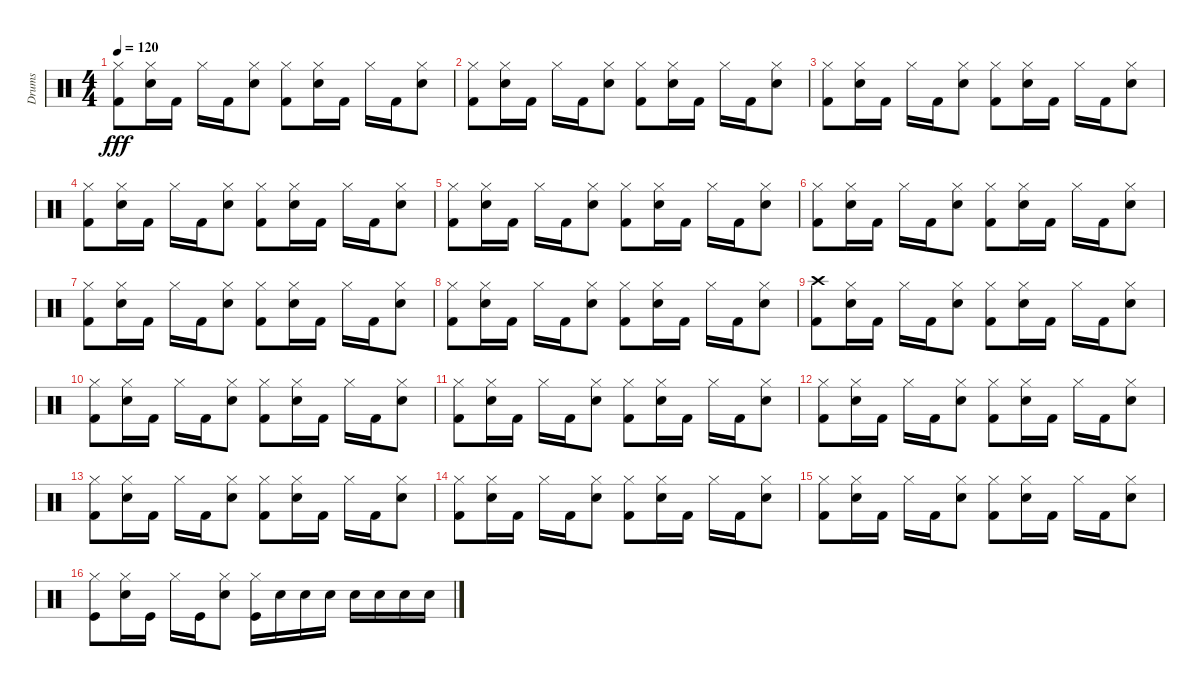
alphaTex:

\track ("Drums" "Drums") {instrument percussion}
\staff {score}
\articulation defaults
\ts (4 4)
\tempo 120
\clef neutral
\ks c
("Hi-Hat (closed)" "Kick (hit) 2").8{dy fff} ("Hi-Hat (closed)" "Snare (hit) 2").16 "Kick (hit) 2".16 "Hi-Hat (closed)".16 "Kick (hit) 2".16 ("Hi-Hat (closed)" "Snare (hit) 2").8 ("Hi-Hat (closed)" "Kick (hit) 2").8 ("Hi-Hat (closed)" "Snare (hit) 2").16 "Kick (hit) 2".16 "Hi-Hat (closed)".16 "Kick (hit) 2".16 ("Hi-Hat (closed)" "Snare (hit) 2").8 |
("Hi-Hat (closed)" "Kick (hit) 2").8 ("Hi-Hat (closed)" "Snare (hit) 2").16 "Kick (hit) 2".16 "Hi-Hat (closed)".16 "Kick (hit) 2".16 ("Hi-Hat (closed)" "Snare (hit) 2").8 ("Hi-Hat (closed)" "Kick (hit) 2").8 ("Hi-Hat (closed)" "Snare (hit) 2").16 "Kick (hit) 2".16 "Hi-Hat (closed)".16 "Kick (hit) 2".16 ("Hi-Hat (closed)" "Snare (hit) 2").8 |
("Hi-Hat (closed)" "Kick (hit) 2").8 ("Hi-Hat (closed)" "Snare (hit) 2").16 "Kick (hit) 2".16 "Hi-Hat (closed)".16 "Kick (hit) 2".16 ("Hi-Hat (closed)" "Snare (hit) 2").8 ("Hi-Hat (closed)" "Kick (hit) 2").8 ("Hi-Hat (closed)" "Snare (hit) 2").16 "Kick (hit) 2".16 "Hi-Hat (closed)".16 "Kick (hit) 2".16 ("Hi-Hat (closed)" "Snare (hit) 2").8 |
("Hi-Hat (closed)" "Kick (hit) 2").8 ("Hi-Hat (closed)" "Snare (hit) 2").16 "Kick (hit) 2".16 "Hi-Hat (closed)".16 "Kick (hit) 2".16 ("Hi-Hat (closed)" "Snare (hit) 2").8 ("Hi-Hat (closed)" "Kick (hit) 2").8 ("Hi-Hat (closed)" "Snare (hit) 2").16 "Kick (hit) 2".16 "Hi-Hat (closed)".16 "Kick (hit) 2".16 ("Hi-Hat (closed)" "Snare (hit) 2").8 |
("Hi-Hat (closed)" "Kick (hit) 2").8 ("Hi-Hat (closed)" "Snare (hit) 2").16 "Kick (hit) 2".16 "Hi-Hat (closed)".16 "Kick (hit) 2".16 ("Hi-Hat (closed)" "Snare (hit) 2").8 ("Hi-Hat (closed)" "Kick (hit) 2").8 ("Hi-Hat (closed)" "Snare (hit) 2").16 "Kick (hit) 2".16 "Hi-Hat (closed)".16 "Kick (hit) 2".16 ("Hi-Hat (closed)" "Snare (hit) 2").8 |
("Hi-Hat (closed)" "Kick (hit) 2").8 ("Hi-Hat (closed)" "Snare (hit) 2").16 "Kick (hit) 2".16 "Hi-Hat (closed)".16 "Kick (hit) 2".16 ("Hi-Hat (closed)" "Snare (hit) 2").8 ("Hi-Hat (closed)" "Kick (hit) 2").8 ("Hi-Hat (closed)" "Snare (hit) 2").16 "Kick (hit) 2".16 "Hi-Hat (closed)".16 "Kick (hit) 2".16 ("Hi-Hat (closed)" "Snare (hit) 2").8 |
("Hi-Hat (closed)" "Kick (hit) 2").8 ("Hi-Hat (closed)" "Snare (hit) 2").16 "Kick (hit) 2".16 "Hi-Hat (closed)".16 "Kick (hit) 2".16 ("Hi-Hat (closed)" "Snare (hit) 2").8 ("Hi-Hat (closed)" "Kick (hit) 2").8 ("Hi-Hat (closed)" "Snare (hit) 2").16 "Kick (hit) 2".16 "Hi-Hat (closed)".16 "Kick (hit) 2".16 ("Hi-Hat (closed)" "Snare (hit) 2").8 |
("Hi-Hat (closed)" "Kick (hit) 2").8 ("Hi-Hat (closed)" "Snare (hit) 2").16 "Kick (hit) 2".16 "Hi-Hat (closed)".16 "Kick (hit) 2".16 ("Hi-Hat (closed)" "Snare (hit) 2").8 ("Hi-Hat (closed)" "Kick (hit) 2").8 ("Hi-Hat (closed)" "Snare (hit) 2").16 "Kick (hit) 2".16 "Hi-Hat (closed)".16 "Kick (hit) 2".16 ("Hi-Hat (closed)" "Snare (hit) 2").8 |
("Crash high (hit)" "Kick (hit) 2").8 ("Hi-Hat (closed)" "Snare (hit) 2").16 "Kick (hit) 2".16 "Hi-Hat (closed)".16 "Kick (hit) 2".16 ("Hi-Hat (closed)" "Snare (hit) 2").8 ("Hi-Hat (closed)" "Kick (hit) 2").8 ("Hi-Hat (closed)" "Snare (hit) 2").16 "Kick (hit) 2".16 "Hi-Hat (closed)".16 "Kick (hit) 2".16 ("Hi-Hat (closed)" "Snare (hit) 2").8 |
("Hi-Hat (closed)" "Kick (hit) 2").8 ("Hi-Hat (closed)" "Snare (hit) 2").16 "Kick (hit) 2".16 "Hi-Hat (closed)".16 "Kick (hit) 2".16 ("Hi-Hat (closed)" "Snare (hit) 2").8 ("Hi-Hat (closed)" "Kick (hit) 2").8 ("Hi-Hat (closed)" "Snare (hit) 2").16 "Kick (hit) 2".16 "Hi-Hat (closed)".16 "Kick (hit) 2".16 ("Hi-Hat (closed)" "Snare (hit) 2").8 |
("Hi-Hat (closed)" "Kick (hit) 2").8 ("Hi-Hat (closed)" "Snare (hit) 2").16 "Kick (hit) 2".16 "Hi-Hat (closed)".16 "Kick (hit) 2".16 ("Hi-Hat (closed)" "Snare (hit) 2").8 ("Hi-Hat (closed)" "Kick (hit) 2").8 ("Hi-Hat (closed)" "Snare (hit) 2").16 "Kick (hit) 2".16 "Hi-Hat (closed)".16 "Kick (hit) 2".16 ("Hi-Hat (closed)" "Snare (hit) 2").8 |
("Hi-Hat (closed)" "Kick (hit) 2").8 ("Hi-Hat (closed)" "Snare (hit) 2").16 "Kick (hit) 2".16 "Hi-Hat (closed)".16 "Kick (hit) 2".16 ("Hi-Hat (closed)" "Snare (hit) 2").8 ("Hi-Hat (closed)" "Kick (hit) 2").8 ("Hi-Hat (closed)" "Snare (hit) 2").16 "Kick (hit) 2".16 "Hi-Hat (closed)".16 "Kick (hit) 2".16 ("Hi-Hat (closed)" "Snare (hit) 2").8 |
("Hi-Hat (closed)" "Kick (hit) 2").8 ("Hi-Hat (closed)" "Snare (hit) 2").16 "Kick (hit) 2".16 "Hi-Hat (closed)".16 "Kick (hit) 2".16 ("Hi-Hat (closed)" "Snare (hit) 2").8 ("Hi-Hat (closed)" "Kick (hit) 2").8 ("Hi-Hat (closed)" "Snare (hit) 2").16 "Kick (hit) 2".16 "Hi-Hat (closed)".16 "Kick (hit) 2".16 ("Hi-Hat (closed)" "Snare (hit) 2").8 |
("Hi-Hat (closed)" "Kick (hit) 2").8 ("Hi-Hat (closed)" "Snare (hit) 2").16 "Kick (hit) 2".16 "Hi-Hat (closed)".16 "Kick (hit) 2".16 ("Hi-Hat (closed)" "Snare (hit) 2").8 ("Hi-Hat (closed)" "Kick (hit) 2").8 ("Hi-Hat (closed)" "Snare (hit) 2").16 "Kick (hit) 2".16 "Hi-Hat (closed)".16 "Kick (hit) 2".16 ("Hi-Hat (closed)" "Snare (hit) 2").8 |
("Hi-Hat (closed)" "Kick (hit) 2").8 ("Hi-Hat (closed)" "Snare (hit) 2").16 "Kick (hit) 2".16 "Hi-Hat (closed)".16 "Kick (hit) 2".16 ("Hi-Hat (closed)" "Snare (hit) 2").8 ("Hi-Hat (closed)" "Kick (hit) 2").8 ("Hi-Hat (closed)" "Snare (hit) 2").16 "Kick (hit) 2".16 "Hi-Hat (closed)".16 "Kick (hit) 2".16 ("Hi-Hat (closed)" "Snare (hit) 2").8 |
("Hi-Hat (closed)" "Kick (hit)").8 ("Hi-Hat (closed)" "Snare (hit) 2").16 "Kick (hit)".16 "Hi-Hat (closed)".16 "Kick (hit)".16 ("Hi-Hat (closed)" "Snare (hit) 2").8 ("Hi-Hat (closed)" "Kick (hit)").16 "Snare (hit) 2".16 "Snare (hit) 2".16 "Snare (hit) 2".16 "Snare (hit) 2".16 "Snare (hit) 2".16 "Snare (hit) 2".16 "Snare (hit) 2".16
